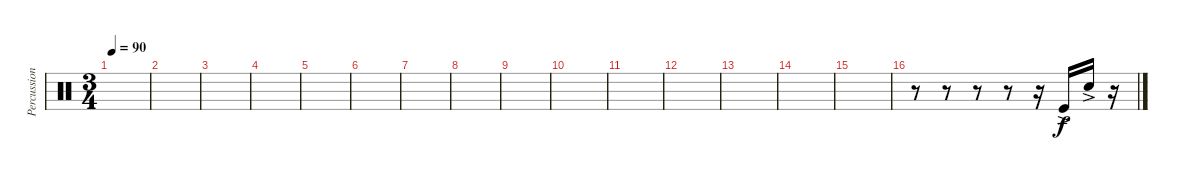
\track ("Percussion" "Percussion") {instrument percussion}
\staff {score}
\articulation defaults
\ts (3 4)
\tempo 90
\clef neutral
\ks c
|
|
|
|
|
|
|
|
|
|
|
|
|
|
|
r.8 r.8 r.8 r.8 r.16 "Kick (hit)"{ac}.16 "Electric Snare (hit)"{ac}.16 r.16
